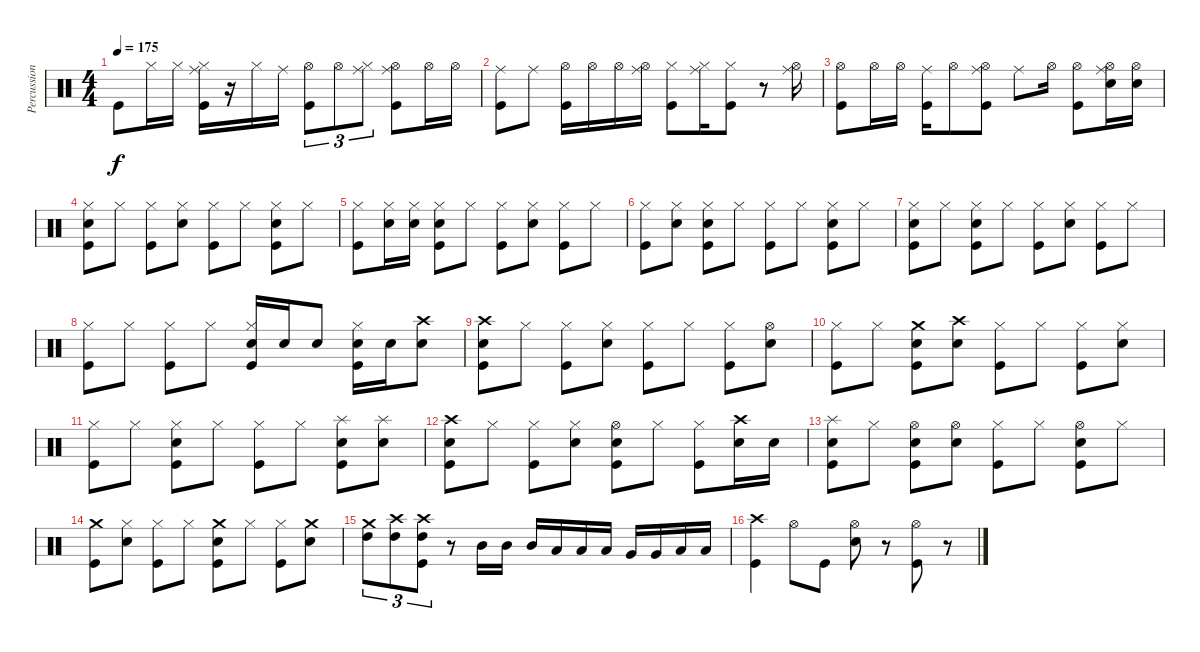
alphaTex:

\track ("Percussions" "Percussion") {instrument percussion}
\staff {score}
\articulation defaults
\ts (4 4)
\tempo 175
\clef neutral
\ks c "Kick (hit)".8{dy f} "Hi-Hat (closed)".16 "Hi-Hat (closed)".16
("Hi-Hat (closed)" "Ride (middle)" "Kick (hit)").16 r.16 "Hi-Hat (closed)".16 "Ride (middle)".16 ("Hi-Hat (open)" "Kick (hit)").8{tu (3 2)} "Hi-Hat (open)".8{tu (3 2)} ("Hi-Hat (closed)" "Ride (middle)").8{tu (3 2)} ("Hi-Hat (open)" "Ride (middle)" "Kick (hit)").8 "Hi-Hat (open)".16 "Hi-Hat (open)".16 |
("Ride (middle)" "Kick (hit)").8 "Ride (middle)".8 ("Hi-Hat (open)" "Kick (hit)").16 "Hi-Hat (open)".16 "Hi-Hat (open)".16 ("Hi-Hat (open)" "Ride (middle)").16 ("Hi-Hat (closed)" "Kick (hit)").8 ("Hi-Hat (closed)" "Ride (middle)").16 ("Hi-Hat (closed)" "Kick (hit)").8 r.8 ("Hi-Hat (open)" "Ride (middle)").16 |
("Hi-Hat (open)" "Kick (hit)").8 "Hi-Hat (open)".16 "Hi-Hat (open)".16 ("Ride (middle)" "Kick (hit)").16 "Hi-Hat (open)".8 ("Hi-Hat (open)" "Ride (middle)" "Kick (hit)").8 "Ride (middle)".8 "Hi-Hat (open)".16 ("Hi-Hat (open)" "Kick (hit)").8 ("Hi-Hat (open)" "Ride (middle)" "Snare (hit) 2").16 ("Hi-Hat (open)" "Snare (hit) 2").16 |
("Hi-Hat (closed)" "Snare (hit) 2" "Kick (hit)").8 "Hi-Hat (closed)".8 ("Hi-Hat (closed)" "Kick (hit)").8 ("Hi-Hat (closed)" "Snare (hit) 2").8 ("Hi-Hat (closed)" "Kick (hit)").8 "Hi-Hat (closed)".8 ("Hi-Hat (closed)" "Snare (hit) 2" "Kick (hit)").8 "Hi-Hat (closed)".8 |
("Hi-Hat (closed)" "Kick (hit)").8 ("Hi-Hat (closed)" "Snare (hit) 2").16 ("Hi-Hat (closed)" "Snare (hit) 2").16 ("Hi-Hat (closed)" "Snare (hit) 2" "Kick (hit)").8 "Hi-Hat (closed)".8 ("Hi-Hat (closed)" "Kick (hit)").8 ("Hi-Hat (closed)" "Snare (hit) 2").8 ("Hi-Hat (closed)" "Kick (hit)").8 "Hi-Hat (closed)".8 |
("Hi-Hat (closed)" "Kick (hit)").8 ("Hi-Hat (closed)" "Snare (hit) 2").8 ("Hi-Hat (closed)" "Snare (hit) 2" "Kick (hit)").8 "Hi-Hat (closed)".8 ("Hi-Hat (closed)" "Kick (hit)").8 "Hi-Hat (closed)".8 ("Hi-Hat (closed)" "Snare (hit) 2" "Kick (hit)").8 "Hi-Hat (closed)".8 |
("Hi-Hat (closed)" "Snare (hit) 2" "Kick (hit)").8 "Hi-Hat (closed)".8 ("Hi-Hat (closed)" "Snare (hit) 2" "Kick (hit)").8 "Hi-Hat (closed)".8 ("Hi-Hat (closed)" "Kick (hit)").8 ("Hi-Hat (closed)" "Snare (hit) 2").8 ("Hi-Hat (closed)" "Kick (hit)").8 "Hi-Hat (closed)".8 |
("Hi-Hat (closed)" "Kick (hit)").8 "Hi-Hat (closed)".8 ("Hi-Hat (closed)" "Kick (hit)").8 "Hi-Hat (closed)".8 ("Hi-Hat (closed)" "Snare (hit) 2" "Kick (hit)").16 "Snare (hit) 2".16 "Snare (hit) 2".8 ("Hi-Hat (closed)" "Snare (hit) 2" "Kick (hit)").16 "Snare (hit) 2".16 ("Crash high (hit)" "Snare (hit) 2").8 |
("Crash high (hit)" "Snare (hit) 2" "Kick (hit)").8 "Hi-Hat (closed)".8 ("Hi-Hat (closed)" "Kick (hit)").8 ("Hi-Hat (closed)" "Snare (hit) 2").8 ("Hi-Hat (closed)" "Kick (hit)").8 "Hi-Hat (closed)".8 ("Hi-Hat (closed)" "Kick (hit)").8 ("Hi-Hat (open)" "Snare (hit) 2").8 |
("Hi-Hat (closed)" "Kick (hit)").8 "Hi-Hat (closed)".8 ("Crash medium (hit)" "Snare (hit) 2" "Kick (hit)").8 ("Crash high (hit)" "Snare (hit) 2").8 ("Hi-Hat (closed)" "Kick (hit)").8 "Hi-Hat (closed)".8 ("Hi-Hat (closed)" "Kick (hit)").8 ("Hi-Hat (closed)" "Snare (hit) 2").8 |
("Hi-Hat (closed)" "Kick (hit)").8 "Hi-Hat (closed)".8 ("Hi-Hat (closed)" "Snare (hit) 2" "Kick (hit)").8 "Hi-Hat (closed)".8 ("Hi-Hat (closed)" "Kick (hit)").8 "Hi-Hat (closed)".8 ("Splash (hit)" "Snare (hit) 2" "Kick (hit)").8 ("Splash (hit)" "Snare (hit) 2").8 |
("Crash high (hit)" "Snare (hit) 2" "Kick (hit)").8 "Hi-Hat (closed)".8 ("Hi-Hat (closed)" "Kick (hit)").8 ("Hi-Hat (closed)" "Snare (hit) 2").8 ("Hi-Hat (open)" "Snare (hit) 2" "Kick (hit)").8 "Hi-Hat (closed)".8 ("Hi-Hat (closed)" "Kick (hit)").8 ("Crash high (hit)" "Snare (hit) 2").16 "Snare (hit) 2".16 |
("Splash (hit)" "Snare (hit) 2" "Kick (hit)").8 "Hi-Hat (closed)".8 ("Hi-Hat (open)" "Snare (hit) 2" "Kick (hit)").8 ("Hi-Hat (open)" "Snare (hit) 2").8 ("Hi-Hat (closed)" "Kick (hit)").8 "Hi-Hat (closed)".8 ("Hi-Hat (open)" "Snare (hit) 2" "Kick (hit)").8 "Hi-Hat (closed)".8 |
("Crash medium (hit)" "Kick (hit)").8 ("Hi-Hat (closed)" "Snare (hit) 2").8 ("Hi-Hat (closed)" "Kick (hit)").8 "Hi-Hat (closed)".8 ("Crash medium (hit)" "Snare (hit) 2" "Kick (hit)").8 "Hi-Hat (closed)".8 ("Hi-Hat (closed)" "Kick (hit)").8 ("Crash medium (hit)" "Snare (hit) 2").8 |
("Crash medium (hit)" "High Tom (hit)").8{tu (3 2)} ("Crash high (hit)" "High Tom (hit)").8{tu (3 2)} ("Crash high (hit)" "High Tom (hit)" "Kick (hit)").8{tu (3 2)} r.8 "Mid Tom (hit)".16 "Mid Tom (hit)".16 "Mid Tom (hit)".16 "Low Tom (hit)".16 "Low Tom (hit)".16 "Low Tom (hit)".16 "Very Low Tom (hit)".16 "Very Low Tom (hit)".16 "Low Floor Tom (hit)".16 "Low Floor Tom (hit)".16 |
("Crash high (hit)" "Kick (hit)").4 "Hi-Hat (open)".8 "Kick (hit)".8 ("Hi-Hat (open)" "Snare (hit) 2").8 r.8 ("Hi-Hat (open)" "Kick (hit)").8 r.8
